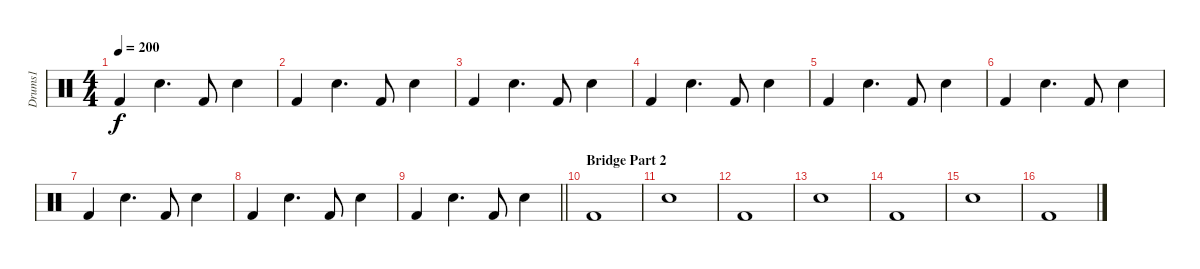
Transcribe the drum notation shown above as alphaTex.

\track ("Drums1" "Drums1") {instrument percussion}
\staff {score}
\articulation defaults
\ts (4 4)
\tempo 200
\clef neutral
\ks c "Kick (hit) 2".4{dy f} "Snare (hit) 2".4{d} "Kick (hit) 2".8 "Snare (hit) 2".4
|
"Kick (hit) 2".4 "Snare (hit) 2".4{d} "Kick (hit) 2".8 "Snare (hit) 2".4 |
"Kick (hit) 2".4 "Snare (hit) 2".4{d} "Kick (hit) 2".8 "Snare (hit) 2".4 |
"Kick (hit) 2".4 "Snare (hit) 2".4{d} "Kick (hit) 2".8 "Snare (hit) 2".4 |
"Kick (hit) 2".4 "Snare (hit) 2".4{d} "Kick (hit) 2".8 "Snare (hit) 2".4 |
"Kick (hit) 2".4 "Snare (hit) 2".4{d} "Kick (hit) 2".8 "Snare (hit) 2".4 |
"Kick (hit) 2".4 "Snare (hit) 2".4{d} "Kick (hit) 2".8 "Snare (hit) 2".4 |
"Kick (hit) 2".4 "Snare (hit) 2".4{d} "Kick (hit) 2".8 "Snare (hit) 2".4 |
\barLineRight lightlight "Kick (hit) 2".4 "Snare (hit) 2".4{d} "Kick (hit) 2".8 "Snare (hit) 2".4
|
\section ("" "Bridge Part 2")
"Kick (hit) 2".1 |
"Snare (hit) 2".1 |
"Kick (hit) 2".1 |
"Snare (hit) 2".1 |
"Kick (hit) 2".1 |
"Snare (hit) 2".1 |
"Kick (hit) 2".1
